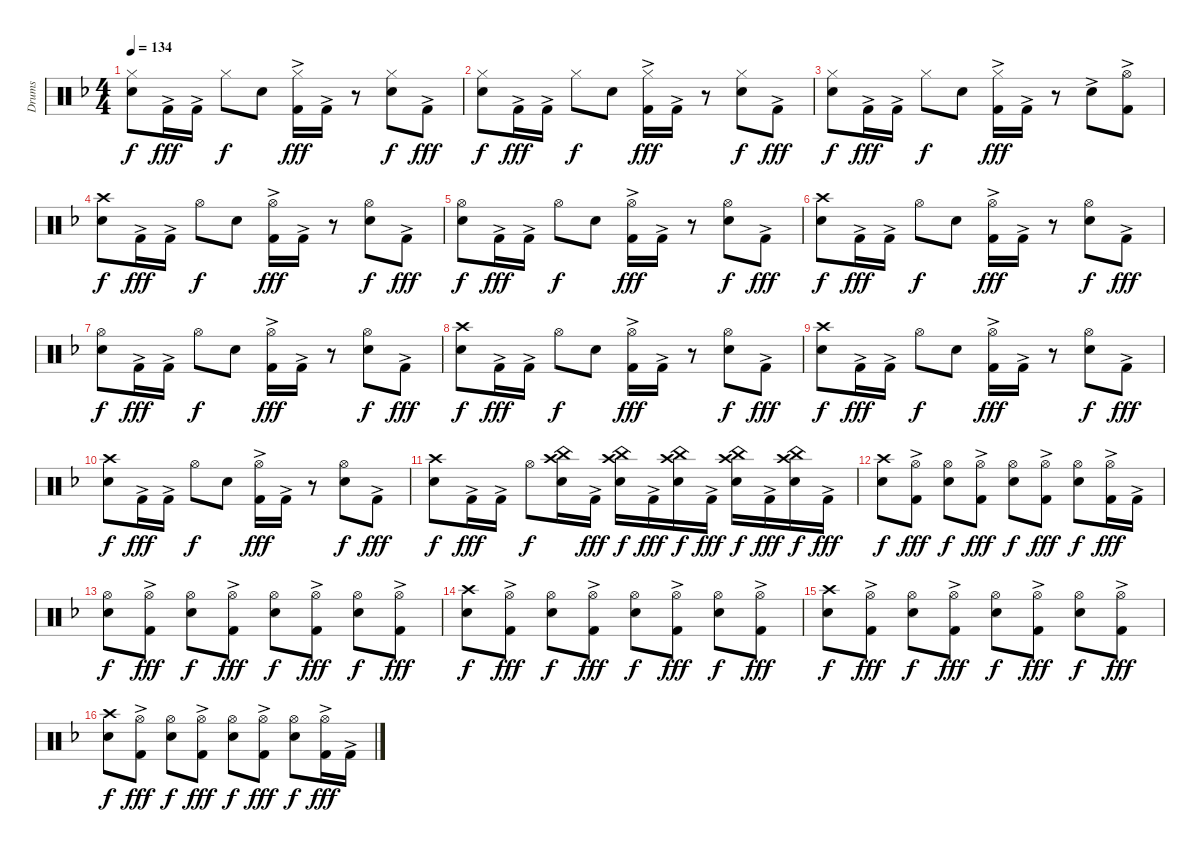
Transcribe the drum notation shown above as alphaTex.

\track ("Drums" "Drums") {instrument percussion}
\staff {score}
\articulation defaults
\ts (4 4)
\tempo 134
\clef neutral
\ks dminor
("Hi-Hat (closed)" "Snare (hit) 2").8{dy f} "Kick (hit) 2"{ac}.16{dy fff} "Kick (hit) 2"{ac}.16 "Hi-Hat (closed)".8{dy f} "Snare (hit) 2".8 ("Hi-Hat (closed)" "Kick (hit) 2"{ac}).16{dy fff} "Kick (hit) 2"{ac}.16 r.8 ("Hi-Hat (closed)" "Snare (hit) 2").8{dy f} "Kick (hit) 2"{ac}.8{dy fff} |
("Hi-Hat (closed)" "Snare (hit) 2").8{dy f} "Kick (hit) 2"{ac}.16{dy fff} "Kick (hit) 2"{ac}.16 "Hi-Hat (closed)".8{dy f} "Snare (hit) 2".8 ("Hi-Hat (closed)" "Kick (hit) 2"{ac}).16{dy fff} "Kick (hit) 2"{ac}.16 r.8 ("Hi-Hat (closed)" "Snare (hit) 2").8{dy f} "Kick (hit) 2"{ac}.8{dy fff} |
("Hi-Hat (closed)" "Snare (hit) 2").8{dy f} "Kick (hit) 2"{ac}.16{dy fff} "Kick (hit) 2"{ac}.16 "Hi-Hat (closed)".8{dy f} "Snare (hit) 2".8 ("Hi-Hat (closed)" "Kick (hit) 2"{ac}).16{dy fff} "Kick (hit) 2"{ac}.16 r.8 "Snare (hit) 2"{ac}.8 ("Hi-Hat (open)" "Kick (hit) 2"{ac}).8 |
("Crash high (hit)" "Snare (hit) 2").8{dy f} "Kick (hit) 2"{ac}.16{dy fff} "Kick (hit) 2"{ac}.16 "Hi-Hat (open)".8{dy f} "Snare (hit) 2".8 ("Hi-Hat (open)" "Kick (hit) 2"{ac}).16{dy fff} "Kick (hit) 2"{ac}.16 r.8 ("Hi-Hat (open)" "Snare (hit) 2").8{dy f} "Kick (hit) 2"{ac}.8{dy fff} |
("Hi-Hat (open)" "Snare (hit) 2").8{dy f} "Kick (hit) 2"{ac}.16{dy fff} "Kick (hit) 2"{ac}.16 "Hi-Hat (open)".8{dy f} "Snare (hit) 2".8 ("Hi-Hat (open)" "Kick (hit) 2"{ac}).16{dy fff} "Kick (hit) 2"{ac}.16 r.8 ("Hi-Hat (open)" "Snare (hit) 2").8{dy f} "Kick (hit) 2"{ac}.8{dy fff} |
("Crash high (hit)" "Snare (hit) 2").8{dy f} "Kick (hit) 2"{ac}.16{dy fff} "Kick (hit) 2"{ac}.16 "Hi-Hat (open)".8{dy f} "Snare (hit) 2".8 ("Hi-Hat (open)" "Kick (hit) 2"{ac}).16{dy fff} "Kick (hit) 2"{ac}.16 r.8 ("Hi-Hat (open)" "Snare (hit) 2").8{dy f} "Kick (hit) 2"{ac}.8{dy fff} |
("Hi-Hat (open)" "Snare (hit) 2").8{dy f} "Kick (hit) 2"{ac}.16{dy fff} "Kick (hit) 2"{ac}.16 "Hi-Hat (open)".8{dy f} "Snare (hit) 2".8 ("Hi-Hat (open)" "Kick (hit) 2"{ac}).16{dy fff} "Kick (hit) 2"{ac}.16 r.8 ("Hi-Hat (open)" "Snare (hit) 2").8{dy f} "Kick (hit) 2"{ac}.8{dy fff} |
("Crash high (hit)" "Snare (hit) 2").8{dy f} "Kick (hit) 2"{ac}.16{dy fff} "Kick (hit) 2"{ac}.16 "Hi-Hat (open)".8{dy f} "Snare (hit) 2".8 ("Hi-Hat (open)" "Kick (hit) 2"{ac}).16{dy fff} "Kick (hit) 2"{ac}.16 r.8 ("Hi-Hat (open)" "Snare (hit) 2").8{dy f} "Kick (hit) 2"{ac}.8{dy fff} |
("Crash high (hit)" "Snare (hit) 2").8{dy f} "Kick (hit) 2"{ac}.16{dy fff} "Kick (hit) 2"{ac}.16 "Hi-Hat (open)".8{dy f} "Snare (hit) 2".8 ("Hi-Hat (open)" "Kick (hit) 2"{ac}).16{dy fff} "Kick (hit) 2"{ac}.16 r.8 ("Hi-Hat (open)" "Snare (hit) 2").8{dy f} "Kick (hit) 2"{ac}.8{dy fff} |
("Crash high (hit)" "Snare (hit) 2").8{dy f} "Kick (hit) 2"{ac}.16{dy fff} "Kick (hit) 2"{ac}.16 "Hi-Hat (open)".8{dy f} "Snare (hit) 2".8 ("Hi-Hat (open)" "Kick (hit) 2"{ac}).16{dy fff} "Kick (hit) 2"{ac}.16 r.8 ("Hi-Hat (open)" "Snare (hit) 2").8{dy f} "Kick (hit) 2"{ac}.8{dy fff} |
("Crash high (hit)" "Snare (hit) 2").8{dy f} "Kick (hit) 2"{ac}.16{dy fff} "Kick (hit) 2"{ac}.16 "Hi-Hat (open)".8{dy f} ("Crash high (hit)" "China (hit)" "Snare (hit) 2").16 "Kick (hit) 2"{ac}.16{dy fff} ("Crash high (hit)" "China (hit)" "Snare (hit) 2").16{dy f} "Kick (hit) 2"{ac}.16{dy fff} ("Crash high (hit)" "China (hit)" "Snare (hit) 2").16{dy f} "Kick (hit) 2"{ac}.16{dy fff} ("Crash high (hit)" "China (hit)" "Snare (hit) 2").16{dy f} "Kick (hit) 2"{ac}.16{dy fff} ("Crash high (hit)" "China (hit)" "Snare (hit) 2").16{dy f} "Kick (hit) 2"{ac}.16{dy fff} |
("Crash high (hit)" "Snare (hit) 2").8{dy f} ("Hi-Hat (open)" "Kick (hit) 2"{ac}).8{dy fff} ("Hi-Hat (open)" "Snare (hit) 2").8{dy f} ("Hi-Hat (open)" "Kick (hit) 2"{ac}).8{dy fff} ("Hi-Hat (open)" "Snare (hit) 2").8{dy f} ("Hi-Hat (open)" "Kick (hit) 2"{ac}).8{dy fff} ("Hi-Hat (open)" "Snare (hit) 2").8{dy f} ("Hi-Hat (open)" "Kick (hit) 2"{ac}).16{dy fff} "Kick (hit) 2"{ac}.16 |
("Hi-Hat (open)" "Snare (hit) 2").8{dy f} ("Hi-Hat (open)" "Kick (hit) 2"{ac}).8{dy fff} ("Hi-Hat (open)" "Snare (hit) 2").8{dy f} ("Hi-Hat (open)" "Kick (hit) 2"{ac}).8{dy fff} ("Hi-Hat (open)" "Snare (hit) 2").8{dy f} ("Hi-Hat (open)" "Kick (hit) 2"{ac}).8{dy fff} ("Hi-Hat (open)" "Snare (hit) 2").8{dy f} ("Hi-Hat (open)" "Kick (hit) 2"{ac}).8{dy fff} |
("Crash high (hit)" "Snare (hit) 2").8{dy f} ("Hi-Hat (open)" "Kick (hit) 2"{ac}).8{dy fff} ("Hi-Hat (open)" "Snare (hit) 2").8{dy f} ("Hi-Hat (open)" "Kick (hit) 2"{ac}).8{dy fff} ("Hi-Hat (open)" "Snare (hit) 2").8{dy f} ("Hi-Hat (open)" "Kick (hit) 2"{ac}).8{dy fff} ("Hi-Hat (open)" "Snare (hit) 2").8{dy f} ("Hi-Hat (open)" "Kick (hit) 2"{ac}).8{dy fff} |
("Crash high (hit)" "Snare (hit) 2").8{dy f} ("Hi-Hat (open)" "Kick (hit) 2"{ac}).8{dy fff} ("Hi-Hat (open)" "Snare (hit) 2").8{dy f} ("Hi-Hat (open)" "Kick (hit) 2"{ac}).8{dy fff} ("Hi-Hat (open)" "Snare (hit) 2").8{dy f} ("Hi-Hat (open)" "Kick (hit) 2"{ac}).8{dy fff} ("Hi-Hat (open)" "Snare (hit) 2").8{dy f} ("Hi-Hat (open)" "Kick (hit) 2"{ac}).8{dy fff} |
("Crash high (hit)" "Snare (hit) 2").8{dy f} ("Hi-Hat (open)" "Kick (hit) 2"{ac}).8{dy fff} ("Hi-Hat (open)" "Snare (hit) 2").8{dy f} ("Hi-Hat (open)" "Kick (hit) 2"{ac}).8{dy fff} ("Hi-Hat (open)" "Snare (hit) 2").8{dy f} ("Hi-Hat (open)" "Kick (hit) 2"{ac}).8{dy fff} ("Hi-Hat (open)" "Snare (hit) 2").8{dy f} ("Hi-Hat (open)" "Kick (hit) 2"{ac}).16{dy fff} "Kick (hit) 2"{ac}.16
